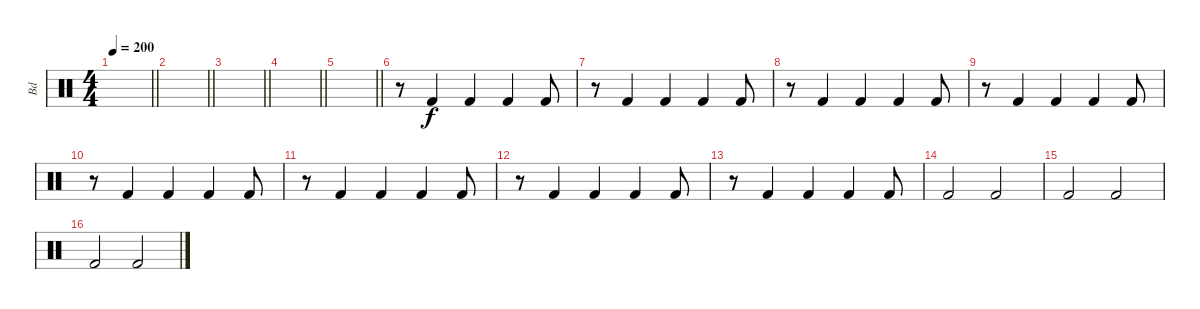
\track ("Bd" "Bd") {instrument percussion}
\staff {score}
\articulation defaults
\ts (4 4)
\tempo 200
\clef neutral
\barLineRight lightlight
\ks c
|
\barLineRight lightlight
|
\barLineRight lightlight
|
\barLineRight lightlight
|
\barLineRight lightlight
|
r.8 "Kick (hit) 2".4 "Kick (hit) 2".4 "Kick (hit) 2".4 "Kick (hit) 2".8 |
r.8 "Kick (hit) 2".4 "Kick (hit) 2".4 "Kick (hit) 2".4 "Kick (hit) 2".8 |
r.8 "Kick (hit) 2".4 "Kick (hit) 2".4 "Kick (hit) 2".4 "Kick (hit) 2".8 |
r.8 "Kick (hit) 2".4 "Kick (hit) 2".4 "Kick (hit) 2".4 "Kick (hit) 2".8 |
r.8 "Kick (hit) 2".4 "Kick (hit) 2".4 "Kick (hit) 2".4 "Kick (hit) 2".8 |
r.8 "Kick (hit) 2".4 "Kick (hit) 2".4 "Kick (hit) 2".4 "Kick (hit) 2".8 |
r.8 "Kick (hit) 2".4 "Kick (hit) 2".4 "Kick (hit) 2".4 "Kick (hit) 2".8 |
r.8 "Kick (hit) 2".4 "Kick (hit) 2".4 "Kick (hit) 2".4 "Kick (hit) 2".8 |
"Kick (hit) 2".2 "Kick (hit) 2".2 |
"Kick (hit) 2".2 "Kick (hit) 2".2 |
"Kick (hit) 2".2 "Kick (hit) 2".2
